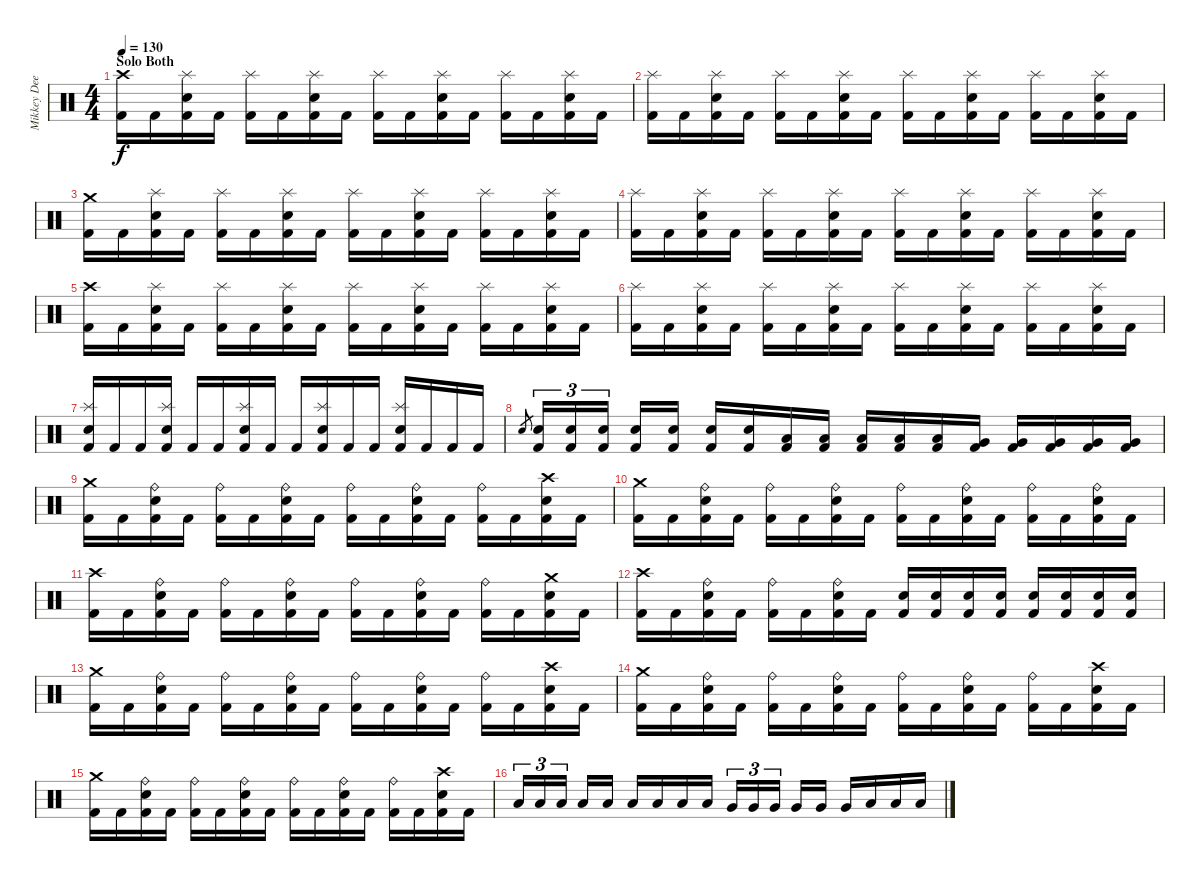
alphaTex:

\track ("Mikkey Dee" "Mikkey Dee") {instrument percussion}
\staff {score}
\articulation defaults
\ts (4 4)
\section ("" "Solo Both")
\tempo 130
\clef neutral
\ks c
("Crash high (hit)" "Kick (hit) 2").16{dy f} "Kick (hit) 2".16 ("Splash (hit)" "Snare (hit) 2" "Kick (hit) 2").16 "Kick (hit) 2".16 ("Splash (hit)" "Kick (hit) 2").16 "Kick (hit) 2".16 ("Splash (hit)" "Snare (hit) 2" "Kick (hit) 2").16 "Kick (hit) 2".16 ("Splash (hit)" "Kick (hit) 2").16 "Kick (hit) 2".16 ("Splash (hit)" "Snare (hit) 2" "Kick (hit) 2").16 "Kick (hit) 2".16 ("Splash (hit)" "Kick (hit) 2").16 "Kick (hit) 2".16 ("Splash (hit)" "Snare (hit) 2" "Kick (hit) 2").16 "Kick (hit) 2".16 |
("Splash (hit)" "Kick (hit) 2").16 "Kick (hit) 2".16 ("Splash (hit)" "Snare (hit) 2" "Kick (hit) 2").16 "Kick (hit) 2".16 ("Splash (hit)" "Kick (hit) 2").16 "Kick (hit) 2".16 ("Splash (hit)" "Snare (hit) 2" "Kick (hit) 2").16 "Kick (hit) 2".16 ("Splash (hit)" "Kick (hit) 2").16 "Kick (hit) 2".16 ("Splash (hit)" "Snare (hit) 2" "Kick (hit) 2").16 "Kick (hit) 2".16 ("Splash (hit)" "Kick (hit) 2").16 "Kick (hit) 2".16 ("Splash (hit)" "Snare (hit) 2" "Kick (hit) 2").16 "Kick (hit) 2".16 |
("Crash medium (hit)" "Kick (hit) 2").16 "Kick (hit) 2".16 ("Splash (hit)" "Snare (hit) 2" "Kick (hit) 2").16 "Kick (hit) 2".16 ("Splash (hit)" "Kick (hit) 2").16 "Kick (hit) 2".16 ("Splash (hit)" "Snare (hit) 2" "Kick (hit) 2").16 "Kick (hit) 2".16 ("Splash (hit)" "Kick (hit) 2").16 "Kick (hit) 2".16 ("Splash (hit)" "Snare (hit) 2" "Kick (hit) 2").16 "Kick (hit) 2".16 ("Splash (hit)" "Kick (hit) 2").16 "Kick (hit) 2".16 ("Splash (hit)" "Snare (hit) 2" "Kick (hit) 2").16 "Kick (hit) 2".16 |
("Splash (hit)" "Kick (hit) 2").16 "Kick (hit) 2".16 ("Splash (hit)" "Snare (hit) 2" "Kick (hit) 2").16 "Kick (hit) 2".16 ("Splash (hit)" "Kick (hit) 2").16 "Kick (hit) 2".16 ("Splash (hit)" "Snare (hit) 2" "Kick (hit) 2").16 "Kick (hit) 2".16 ("Splash (hit)" "Kick (hit) 2").16 "Kick (hit) 2".16 ("Splash (hit)" "Snare (hit) 2" "Kick (hit) 2").16 "Kick (hit) 2".16 ("Splash (hit)" "Kick (hit) 2").16 "Kick (hit) 2".16 ("Splash (hit)" "Snare (hit) 2" "Kick (hit) 2").16 "Kick (hit) 2".16 |
("Crash high (hit)" "Kick (hit) 2").16 "Kick (hit) 2".16 ("Splash (hit)" "Snare (hit) 2" "Kick (hit) 2").16 "Kick (hit) 2".16 ("Splash (hit)" "Kick (hit) 2").16 "Kick (hit) 2".16 ("Splash (hit)" "Snare (hit) 2" "Kick (hit) 2").16 "Kick (hit) 2".16 ("Splash (hit)" "Kick (hit) 2").16 "Kick (hit) 2".16 ("Splash (hit)" "Snare (hit) 2" "Kick (hit) 2").16 "Kick (hit) 2".16 ("Splash (hit)" "Kick (hit) 2").16 "Kick (hit) 2".16 ("Splash (hit)" "Snare (hit) 2" "Kick (hit) 2").16 "Kick (hit) 2".16 |
("Splash (hit)" "Kick (hit) 2").16 "Kick (hit) 2".16 ("Splash (hit)" "Snare (hit) 2" "Kick (hit) 2").16 "Kick (hit) 2".16 ("Splash (hit)" "Kick (hit) 2").16 "Kick (hit) 2".16 ("Splash (hit)" "Snare (hit) 2" "Kick (hit) 2").16 "Kick (hit) 2".16 ("Splash (hit)" "Kick (hit) 2").16 "Kick (hit) 2".16 ("Splash (hit)" "Snare (hit) 2" "Kick (hit) 2").16 "Kick (hit) 2".16 ("Splash (hit)" "Kick (hit) 2").16 "Kick (hit) 2".16 ("Splash (hit)" "Snare (hit) 2" "Kick (hit) 2").16 "Kick (hit) 2".16 |
("Splash (hit)" "Snare (hit) 2" "Kick (hit) 2").16 "Kick (hit) 2".16 "Kick (hit) 2".16 ("Splash (hit)" "Snare (hit) 2" "Kick (hit) 2").16 "Kick (hit) 2".16 "Kick (hit) 2".16 ("Splash (hit)" "Snare (hit) 2" "Kick (hit) 2").16 "Kick (hit) 2".16 "Kick (hit) 2".16 ("Splash (hit)" "Snare (hit) 2" "Kick (hit) 2").16 "Kick (hit) 2".16 "Kick (hit) 2".16 ("Splash (hit)" "Snare (hit) 2" "Kick (hit) 2").16 "Kick (hit) 2".16 "Kick (hit) 2".16 "Kick (hit) 2".16 |
"Snare (hit) 2".8{gr} ("Snare (hit) 2" "Kick (hit) 2").16{tu (3 2)} ("Snare (hit) 2" "Kick (hit) 2").16{tu (3 2)} ("Snare (hit) 2" "Kick (hit) 2").16{tu (3 2)} ("Snare (hit) 2" "Kick (hit) 2").16 ("Snare (hit) 2" "Kick (hit) 2").16 ("Snare (hit) 2" "Kick (hit) 2").16 ("Snare (hit) 2" "Kick (hit) 2").16 ("Low Tom (hit)" "Kick (hit) 2").16 ("Low Tom (hit)" "Kick (hit) 2").16 ("Low Tom (hit)" "Kick (hit) 2").16 ("Low Tom (hit)" "Kick (hit) 2").16 ("Low Tom (hit)" "Kick (hit) 2").16 ("Very Low Tom (hit)" "Kick (hit) 2").16 ("Very Low Tom (hit)" "Kick (hit) 2").16 ("Very Low Tom (hit)" "Kick (hit) 2").16 ("Very Low Tom (hit)" "Kick (hit) 2").16 ("Very Low Tom (hit)" "Kick (hit) 2").16 |
("Crash medium (hit)" "Kick (hit) 2").16 "Kick (hit) 2".16 ("Ride (bell)" "Snare (hit) 2" "Kick (hit) 2").16 "Kick (hit) 2".16 ("Ride (bell)" "Kick (hit) 2").16 "Kick (hit) 2".16 ("Ride (bell)" "Snare (hit) 2" "Kick (hit) 2").16 "Kick (hit) 2".16 ("Ride (bell)" "Kick (hit) 2").16 "Kick (hit) 2".16 ("Ride (bell)" "Snare (hit) 2" "Kick (hit) 2").16 "Kick (hit) 2".16 ("Ride (bell)" "Kick (hit) 2").16 "Kick (hit) 2".16 ("Crash high (hit)" "Snare (hit) 2" "Kick (hit) 2").16 "Kick (hit) 2".16 |
("Crash medium (hit)" "Kick (hit) 2").16 "Kick (hit) 2".16 ("Ride (bell)" "Snare (hit) 2" "Kick (hit) 2").16 "Kick (hit) 2".16 ("Ride (bell)" "Kick (hit) 2").16 "Kick (hit) 2".16 ("Ride (bell)" "Snare (hit) 2" "Kick (hit) 2").16 "Kick (hit) 2".16 ("Ride (bell)" "Kick (hit) 2").16 "Kick (hit) 2".16 ("Ride (bell)" "Snare (hit) 2" "Kick (hit) 2").16 "Kick (hit) 2".16 ("Ride (bell)" "Kick (hit) 2").16 "Kick (hit) 2".16 ("Ride (bell)" "Snare (hit) 2" "Kick (hit) 2").16 "Kick (hit) 2".16 |
("Crash high (hit)" "Kick (hit) 2").16 "Kick (hit) 2".16 ("Ride (bell)" "Snare (hit) 2" "Kick (hit) 2").16 "Kick (hit) 2".16 ("Ride (bell)" "Kick (hit) 2").16 "Kick (hit) 2".16 ("Ride (bell)" "Snare (hit) 2" "Kick (hit) 2").16 "Kick (hit) 2".16 ("Ride (bell)" "Kick (hit) 2").16 "Kick (hit) 2".16 ("Ride (bell)" "Snare (hit) 2" "Kick (hit) 2").16 "Kick (hit) 2".16 ("Ride (bell)" "Kick (hit) 2").16 "Kick (hit) 2".16 ("Crash medium (hit)" "Snare (hit) 2" "Kick (hit) 2").16 "Kick (hit) 2".16 |
("Crash high (hit)" "Kick (hit) 2").16 "Kick (hit) 2".16 ("Ride (bell)" "Snare (hit) 2" "Kick (hit) 2").16 "Kick (hit) 2".16 ("Ride (bell)" "Kick (hit) 2").16 "Kick (hit) 2".16 ("Ride (bell)" "Snare (hit) 2" "Kick (hit) 2").16 "Kick (hit) 2".16 ("Snare (hit) 2" "Kick (hit) 2").16 ("Snare (hit) 2" "Kick (hit) 2").16 ("Snare (hit) 2" "Kick (hit) 2").16 ("Snare (hit) 2" "Kick (hit) 2").16 ("Snare (hit) 2" "Kick (hit) 2").16 ("Snare (hit) 2" "Kick (hit) 2").16 ("Snare (hit) 2" "Kick (hit) 2").16 ("Snare (hit) 2" "Kick (hit) 2").16 |
("Crash medium (hit)" "Kick (hit) 2").16 "Kick (hit) 2".16 ("Ride (bell)" "Snare (hit) 2" "Kick (hit) 2").16 "Kick (hit) 2".16 ("Ride (bell)" "Kick (hit) 2").16 "Kick (hit) 2".16 ("Ride (bell)" "Snare (hit) 2" "Kick (hit) 2").16 "Kick (hit) 2".16 ("Ride (bell)" "Kick (hit) 2").16 "Kick (hit) 2".16 ("Ride (bell)" "Snare (hit) 2" "Kick (hit) 2").16 "Kick (hit) 2".16 ("Ride (bell)" "Kick (hit) 2").16 "Kick (hit) 2".16 ("Crash high (hit)" "Snare (hit) 2" "Kick (hit) 2").16 "Kick (hit) 2".16 |
("Crash medium (hit)" "Kick (hit) 2").16 "Kick (hit) 2".16 ("Ride (bell)" "Snare (hit) 2" "Kick (hit) 2").16 "Kick (hit) 2".16 ("Ride (bell)" "Kick (hit) 2").16 "Kick (hit) 2".16 ("Ride (bell)" "Snare (hit) 2" "Kick (hit) 2").16 "Kick (hit) 2".16 ("Ride (bell)" "Kick (hit) 2").16 "Kick (hit) 2".16 ("Ride (bell)" "Snare (hit) 2" "Kick (hit) 2").16 "Kick (hit) 2".16 ("Ride (bell)" "Kick (hit) 2").16 "Kick (hit) 2".16 ("Crash high (hit)" "Snare (hit) 2" "Kick (hit) 2").16 "Kick (hit) 2".16 |
("Crash medium (hit)" "Kick (hit) 2").16 "Kick (hit) 2".16 ("Ride (bell)" "Snare (hit) 2" "Kick (hit) 2").16 "Kick (hit) 2".16 ("Ride (bell)" "Kick (hit) 2").16 "Kick (hit) 2".16 ("Ride (bell)" "Snare (hit) 2" "Kick (hit) 2").16 "Kick (hit) 2".16 ("Ride (bell)" "Kick (hit) 2").16 "Kick (hit) 2".16 ("Ride (bell)" "Snare (hit) 2" "Kick (hit) 2").16 "Kick (hit) 2".16 ("Ride (bell)" "Kick (hit) 2").16 "Kick (hit) 2".16 ("Crash high (hit)" "Snare (hit) 2" "Kick (hit) 2").16 "Kick (hit) 2".16 |
"Low Tom (hit)".16{tu (3 2)} "Low Tom (hit)".16{tu (3 2)} "Low Tom (hit)".16{tu (3 2)} "Low Tom (hit)".16 "Low Tom (hit)".16 "Low Tom (hit)".16 "Low Tom (hit)".16 "Low Tom (hit)".16 "Low Tom (hit)".16 "Very Low Tom (hit)".16{tu (3 2)} "Very Low Tom (hit)".16{tu (3 2)} "Very Low Tom (hit)".16{tu (3 2)} "Very Low Tom (hit)".16 "Very Low Tom (hit)".16 "Very Low Tom (hit)".16 "Low Floor Tom (hit)".16 "Low Floor Tom (hit)".16 "Low Floor Tom (hit)".16
